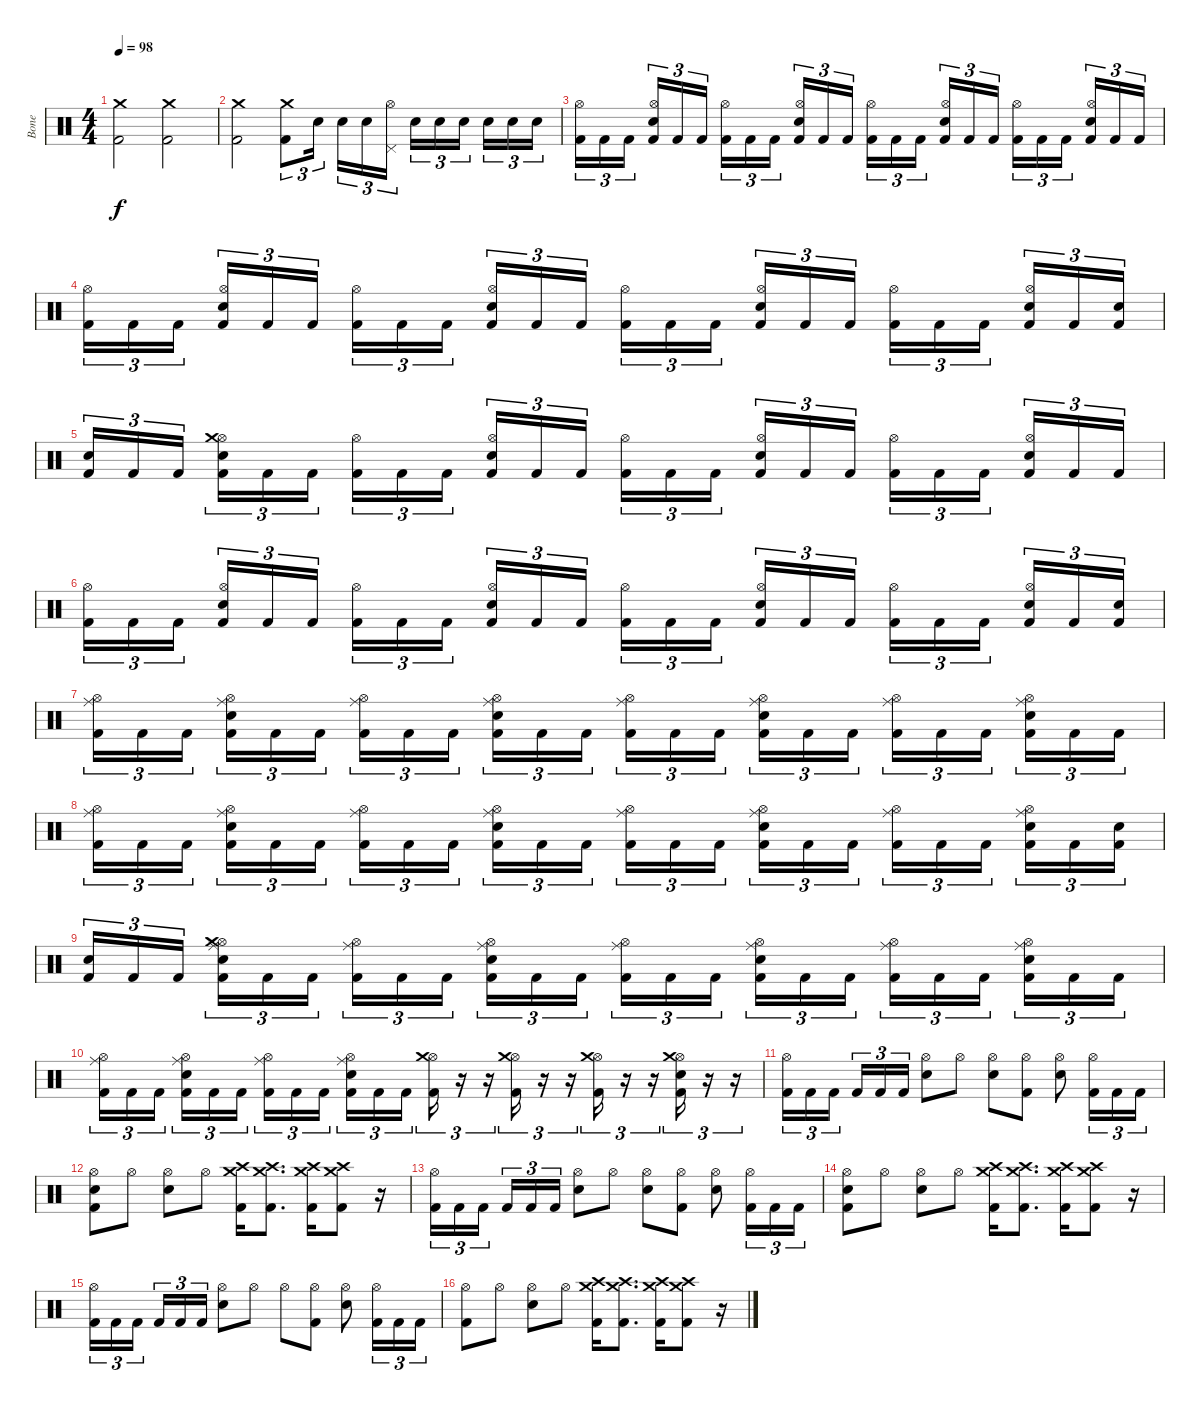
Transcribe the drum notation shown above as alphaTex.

\track ("Bone " "Bone ") {instrument percussion}
\staff {score}
\articulation defaults
\ts (4 4)
\tempo 98
\clef neutral
\ks c
("Crash medium (hit)" "Kick (hit) 2").2{dy f} ("Crash medium (hit)" "Kick (hit) 2").2 |
("Crash medium (hit)" "Kick (hit) 2").2 ("Crash medium (hit)" "Kick (hit) 2").8{tu (3 2)} "Electric Snare (hit)".16{tu (3 2) beam splitsecondary} "Electric Snare (hit)".16{tu (3 2)} "Electric Snare (hit)".16{tu (3 2)} ("Pedal Hi-Hat (hit)" "Hi-Hat (open)").16{tu (3 2)} "Electric Snare (hit)".16{tu (3 2)} "Electric Snare (hit)".16{tu (3 2)} "Electric Snare (hit)".16{tu (3 2) beam splitsecondary} "Electric Snare (hit)".16{tu (3 2)} "Electric Snare (hit)".16{tu (3 2)} "Electric Snare (hit)".16{tu (3 2)} |
("Hi-Hat (open)" "Kick (hit) 2").16{tu (3 2)} "Kick (hit) 2".16{tu (3 2)} "Kick (hit) 2".16{tu (3 2) beam splitsecondary} ("Hi-Hat (open)" "Snare (hit) 2" "Kick (hit) 2").16{tu (3 2)} "Kick (hit) 2".16{tu (3 2)} "Kick (hit) 2".16{tu (3 2)} ("Hi-Hat (open)" "Kick (hit) 2").16{tu (3 2)} "Kick (hit) 2".16{tu (3 2)} "Kick (hit) 2".16{tu (3 2) beam splitsecondary} ("Hi-Hat (open)" "Snare (hit) 2" "Kick (hit) 2").16{tu (3 2)} "Kick (hit) 2".16{tu (3 2)} "Kick (hit) 2".16{tu (3 2)} ("Hi-Hat (open)" "Kick (hit) 2").16{tu (3 2)} "Kick (hit) 2".16{tu (3 2)} "Kick (hit) 2".16{tu (3 2) beam splitsecondary} ("Hi-Hat (open)" "Snare (hit) 2" "Kick (hit) 2").16{tu (3 2)} "Kick (hit) 2".16{tu (3 2)} "Kick (hit) 2".16{tu (3 2)} ("Hi-Hat (open)" "Kick (hit) 2").16{tu (3 2)} "Kick (hit) 2".16{tu (3 2)} "Kick (hit) 2".16{tu (3 2) beam splitsecondary} ("Hi-Hat (open)" "Snare (hit) 2" "Kick (hit) 2").16{tu (3 2)} "Kick (hit) 2".16{tu (3 2)} "Kick (hit) 2".16{tu (3 2)} |
("Hi-Hat (open)" "Kick (hit) 2").16{tu (3 2)} "Kick (hit) 2".16{tu (3 2)} "Kick (hit) 2".16{tu (3 2) beam splitsecondary} ("Hi-Hat (open)" "Snare (hit) 2" "Kick (hit) 2").16{tu (3 2)} "Kick (hit) 2".16{tu (3 2)} "Kick (hit) 2".16{tu (3 2)} ("Hi-Hat (open)" "Kick (hit) 2").16{tu (3 2)} "Kick (hit) 2".16{tu (3 2)} "Kick (hit) 2".16{tu (3 2) beam splitsecondary} ("Hi-Hat (open)" "Snare (hit) 2" "Kick (hit) 2").16{tu (3 2)} "Kick (hit) 2".16{tu (3 2)} "Kick (hit) 2".16{tu (3 2)} ("Hi-Hat (open)" "Kick (hit) 2").16{tu (3 2)} "Kick (hit) 2".16{tu (3 2)} "Kick (hit) 2".16{tu (3 2) beam splitsecondary} ("Hi-Hat (open)" "Snare (hit) 2" "Kick (hit) 2").16{tu (3 2)} "Kick (hit) 2".16{tu (3 2)} "Kick (hit) 2".16{tu (3 2)} ("Hi-Hat (open)" "Kick (hit) 2").16{tu (3 2)} "Kick (hit) 2".16{tu (3 2)} "Kick (hit) 2".16{tu (3 2) beam splitsecondary} ("Hi-Hat (open)" "Snare (hit) 2" "Kick (hit) 2").16{tu (3 2)} "Kick (hit) 2".16{tu (3 2)} ("Snare (hit) 2" "Kick (hit) 2").16{tu (3 2)} |
("Snare (hit) 2" "Kick (hit) 2").16{tu (3 2)} "Kick (hit) 2".16{tu (3 2)} "Kick (hit) 2".16{tu (3 2) beam splitsecondary} ("Hi-Hat (open)" "Crash medium (hit)" "Snare (hit) 2" "Kick (hit) 2").16{tu (3 2)} "Kick (hit) 2".16{tu (3 2)} "Kick (hit) 2".16{tu (3 2)} ("Hi-Hat (open)" "Kick (hit) 2").16{tu (3 2)} "Kick (hit) 2".16{tu (3 2)} "Kick (hit) 2".16{tu (3 2) beam splitsecondary} ("Hi-Hat (open)" "Snare (hit) 2" "Kick (hit) 2").16{tu (3 2)} "Kick (hit) 2".16{tu (3 2)} "Kick (hit) 2".16{tu (3 2)} ("Hi-Hat (open)" "Kick (hit) 2").16{tu (3 2)} "Kick (hit) 2".16{tu (3 2)} "Kick (hit) 2".16{tu (3 2) beam splitsecondary} ("Hi-Hat (open)" "Snare (hit) 2" "Kick (hit) 2").16{tu (3 2)} "Kick (hit) 2".16{tu (3 2)} "Kick (hit) 2".16{tu (3 2)} ("Hi-Hat (open)" "Kick (hit) 2").16{tu (3 2)} "Kick (hit) 2".16{tu (3 2)} "Kick (hit) 2".16{tu (3 2) beam splitsecondary} ("Hi-Hat (open)" "Snare (hit) 2" "Kick (hit) 2").16{tu (3 2)} "Kick (hit) 2".16{tu (3 2)} "Kick (hit) 2".16{tu (3 2)} |
("Hi-Hat (open)" "Kick (hit) 2").16{tu (3 2)} "Kick (hit) 2".16{tu (3 2)} "Kick (hit) 2".16{tu (3 2) beam splitsecondary} ("Hi-Hat (open)" "Snare (hit) 2" "Kick (hit) 2").16{tu (3 2)} "Kick (hit) 2".16{tu (3 2)} "Kick (hit) 2".16{tu (3 2)} ("Hi-Hat (open)" "Kick (hit) 2").16{tu (3 2)} "Kick (hit) 2".16{tu (3 2)} "Kick (hit) 2".16{tu (3 2) beam splitsecondary} ("Hi-Hat (open)" "Snare (hit) 2" "Kick (hit) 2").16{tu (3 2)} "Kick (hit) 2".16{tu (3 2)} "Kick (hit) 2".16{tu (3 2)} ("Hi-Hat (open)" "Kick (hit) 2").16{tu (3 2)} "Kick (hit) 2".16{tu (3 2)} "Kick (hit) 2".16{tu (3 2) beam splitsecondary} ("Hi-Hat (open)" "Snare (hit) 2" "Kick (hit) 2").16{tu (3 2)} "Kick (hit) 2".16{tu (3 2)} "Kick (hit) 2".16{tu (3 2)} ("Hi-Hat (open)" "Kick (hit) 2").16{tu (3 2)} "Kick (hit) 2".16{tu (3 2)} "Kick (hit) 2".16{tu (3 2) beam splitsecondary} ("Hi-Hat (open)" "Snare (hit) 2" "Kick (hit) 2").16{tu (3 2)} "Kick (hit) 2".16{tu (3 2)} ("Snare (hit) 2" "Kick (hit) 2").16{tu (3 2)} |
("Hi-Hat (open)" "Ride (middle)" "Kick (hit) 2").16{tu (3 2)} "Kick (hit) 2".16{tu (3 2)} "Kick (hit) 2".16{tu (3 2) beam splitsecondary} ("Hi-Hat (open)" "Ride (middle)" "Snare (hit) 2" "Kick (hit) 2").16{tu (3 2)} "Kick (hit) 2".16{tu (3 2)} "Kick (hit) 2".16{tu (3 2)} ("Hi-Hat (open)" "Ride (middle)" "Kick (hit) 2").16{tu (3 2)} "Kick (hit) 2".16{tu (3 2)} "Kick (hit) 2".16{tu (3 2) beam splitsecondary} ("Hi-Hat (open)" "Ride (middle)" "Snare (hit) 2" "Kick (hit) 2").16{tu (3 2)} "Kick (hit) 2".16{tu (3 2)} "Kick (hit) 2".16{tu (3 2)} ("Hi-Hat (open)" "Ride (middle)" "Kick (hit) 2").16{tu (3 2)} "Kick (hit) 2".16{tu (3 2)} "Kick (hit) 2".16{tu (3 2) beam splitsecondary} ("Hi-Hat (open)" "Ride (middle)" "Snare (hit) 2" "Kick (hit) 2").16{tu (3 2)} "Kick (hit) 2".16{tu (3 2)} "Kick (hit) 2".16{tu (3 2)} ("Hi-Hat (open)" "Ride (middle)" "Kick (hit) 2").16{tu (3 2)} "Kick (hit) 2".16{tu (3 2)} "Kick (hit) 2".16{tu (3 2) beam splitsecondary} ("Hi-Hat (open)" "Ride (middle)" "Snare (hit) 2" "Kick (hit) 2").16{tu (3 2)} "Kick (hit) 2".16{tu (3 2)} "Kick (hit) 2".16{tu (3 2)} |
("Hi-Hat (open)" "Ride (middle)" "Kick (hit) 2").16{tu (3 2)} "Kick (hit) 2".16{tu (3 2)} "Kick (hit) 2".16{tu (3 2) beam splitsecondary} ("Hi-Hat (open)" "Ride (middle)" "Snare (hit) 2" "Kick (hit) 2").16{tu (3 2)} "Kick (hit) 2".16{tu (3 2)} "Kick (hit) 2".16{tu (3 2)} ("Hi-Hat (open)" "Ride (middle)" "Kick (hit) 2").16{tu (3 2)} "Kick (hit) 2".16{tu (3 2)} "Kick (hit) 2".16{tu (3 2) beam splitsecondary} ("Hi-Hat (open)" "Ride (middle)" "Snare (hit) 2" "Kick (hit) 2").16{tu (3 2)} "Kick (hit) 2".16{tu (3 2)} "Kick (hit) 2".16{tu (3 2)} ("Hi-Hat (open)" "Ride (middle)" "Kick (hit) 2").16{tu (3 2)} "Kick (hit) 2".16{tu (3 2)} "Kick (hit) 2".16{tu (3 2) beam splitsecondary} ("Hi-Hat (open)" "Ride (middle)" "Snare (hit) 2" "Kick (hit) 2").16{tu (3 2)} "Kick (hit) 2".16{tu (3 2)} "Kick (hit) 2".16{tu (3 2)} ("Hi-Hat (open)" "Ride (middle)" "Kick (hit) 2").16{tu (3 2)} "Kick (hit) 2".16{tu (3 2)} "Kick (hit) 2".16{tu (3 2) beam splitsecondary} ("Hi-Hat (open)" "Ride (middle)" "Snare (hit) 2" "Kick (hit) 2").16{tu (3 2)} "Kick (hit) 2".16{tu (3 2)} ("Snare (hit) 2" "Kick (hit) 2").16{tu (3 2)} |
("Snare (hit) 2" "Kick (hit) 2").16{tu (3 2)} "Kick (hit) 2".16{tu (3 2)} "Kick (hit) 2".16{tu (3 2) beam splitsecondary} ("Hi-Hat (open)" "Crash medium (hit)" "Ride (middle)" "Snare (hit) 2" "Kick (hit) 2").16{tu (3 2)} "Kick (hit) 2".16{tu (3 2)} "Kick (hit) 2".16{tu (3 2)} ("Hi-Hat (open)" "Ride (middle)" "Kick (hit) 2").16{tu (3 2)} "Kick (hit) 2".16{tu (3 2)} "Kick (hit) 2".16{tu (3 2) beam splitsecondary} ("Hi-Hat (open)" "Ride (middle)" "Snare (hit) 2" "Kick (hit) 2").16{tu (3 2)} "Kick (hit) 2".16{tu (3 2)} "Kick (hit) 2".16{tu (3 2)} ("Hi-Hat (open)" "Ride (middle)" "Kick (hit) 2").16{tu (3 2)} "Kick (hit) 2".16{tu (3 2)} "Kick (hit) 2".16{tu (3 2) beam splitsecondary} ("Hi-Hat (open)" "Ride (middle)" "Snare (hit) 2" "Kick (hit) 2").16{tu (3 2)} "Kick (hit) 2".16{tu (3 2)} "Kick (hit) 2".16{tu (3 2)} ("Hi-Hat (open)" "Ride (middle)" "Kick (hit) 2").16{tu (3 2)} "Kick (hit) 2".16{tu (3 2)} "Kick (hit) 2".16{tu (3 2) beam splitsecondary} ("Hi-Hat (open)" "Ride (middle)" "Snare (hit) 2" "Kick (hit) 2").16{tu (3 2)} "Kick (hit) 2".16{tu (3 2)} "Kick (hit) 2".16{tu (3 2)} |
("Hi-Hat (open)" "Ride (middle)" "Kick (hit) 2").16{tu (3 2)} "Kick (hit) 2".16{tu (3 2)} "Kick (hit) 2".16{tu (3 2) beam splitsecondary} ("Hi-Hat (open)" "Ride (middle)" "Snare (hit) 2" "Kick (hit) 2").16{tu (3 2)} "Kick (hit) 2".16{tu (3 2)} "Kick (hit) 2".16{tu (3 2)} ("Hi-Hat (open)" "Ride (middle)" "Kick (hit) 2").16{tu (3 2)} "Kick (hit) 2".16{tu (3 2)} "Kick (hit) 2".16{tu (3 2) beam splitsecondary} ("Hi-Hat (open)" "Ride (middle)" "Snare (hit) 2" "Kick (hit) 2").16{tu (3 2)} "Kick (hit) 2".16{tu (3 2)} "Kick (hit) 2".16{tu (3 2)} ("Hi-Hat (open)" "Crash medium (hit)" "Kick (hit) 2").16{tu (3 2)} r.16{tu (3 2)} r.16{tu (3 2)} ("Hi-Hat (open)" "Crash medium (hit)" "Kick (hit) 2").16{tu (3 2)} r.16{tu (3 2)} r.16{tu (3 2)} ("Hi-Hat (open)" "Crash medium (hit)" "Kick (hit) 2").16{tu (3 2)} r.16{tu (3 2)} r.16{tu (3 2)} ("Hi-Hat (open)" "Crash medium (hit)" "Snare (hit) 2" "Kick (hit) 2").16{tu (3 2)} r.16{tu (3 2)} r.16{tu (3 2)} |
("Hi-Hat (open)" "Kick (hit) 2").16{tu (3 2)} "Kick (hit) 2".16{tu (3 2)} "Kick (hit) 2".16{tu (3 2) beam splitsecondary} "Kick (hit) 2".16{tu (3 2)} "Kick (hit) 2".16{tu (3 2)} "Kick (hit) 2".16{tu (3 2)} ("Hi-Hat (open)" "Electric Snare (hit)").8 "Hi-Hat (open)".8 ("Hi-Hat (open)" "Electric Snare (hit)").8 ("Hi-Hat (open)" "Kick (hit) 2").8 ("Hi-Hat (open)" "Electric Snare (hit)").8 ("Hi-Hat (open)" "Kick (hit) 2").16{tu (3 2)} "Kick (hit) 2".16{tu (3 2)} "Kick (hit) 2".16{tu (3 2)} |
("Hi-Hat (open)" "Electric Snare (hit)" "Kick (hit) 2").8 "Hi-Hat (open)".8 ("Hi-Hat (open)" "Electric Snare (hit)").8 "Hi-Hat (open)".8 ("Crash medium (hit)" "Crash high (hit)" "Kick (hit) 2").16 ("Crash medium (hit)" "Crash high (hit)" "Kick (hit) 2").8{d} ("Crash medium (hit)" "Crash high (hit)" "Kick (hit) 2").16 ("Crash medium (hit)" "Crash high (hit)" "Kick (hit) 2").8 r.16 |
("Hi-Hat (open)" "Kick (hit) 2").16{tu (3 2)} "Kick (hit) 2".16{tu (3 2)} "Kick (hit) 2".16{tu (3 2) beam splitsecondary} "Kick (hit) 2".16{tu (3 2)} "Kick (hit) 2".16{tu (3 2)} "Kick (hit) 2".16{tu (3 2)} ("Hi-Hat (open)" "Electric Snare (hit)").8 "Hi-Hat (open)".8 ("Hi-Hat (open)" "Electric Snare (hit)").8 ("Hi-Hat (open)" "Kick (hit) 2").8 ("Hi-Hat (open)" "Electric Snare (hit)").8 ("Hi-Hat (open)" "Kick (hit) 2").16{tu (3 2)} "Kick (hit) 2".16{tu (3 2)} "Kick (hit) 2".16{tu (3 2)} |
("Hi-Hat (open)" "Electric Snare (hit)" "Kick (hit) 2").8 "Hi-Hat (open)".8 ("Hi-Hat (open)" "Electric Snare (hit)").8 "Hi-Hat (open)".8 ("Crash medium (hit)" "Crash high (hit)" "Kick (hit) 2").16 ("Crash medium (hit)" "Crash high (hit)" "Kick (hit) 2").8{d} ("Crash medium (hit)" "Crash high (hit)" "Kick (hit) 2").16 ("Crash medium (hit)" "Crash high (hit)" "Kick (hit) 2").8 r.16 |
("Hi-Hat (open)" "Kick (hit) 2").16{tu (3 2)} "Kick (hit) 2".16{tu (3 2)} "Kick (hit) 2".16{tu (3 2) beam splitsecondary} "Kick (hit) 2".16{tu (3 2)} "Kick (hit) 2".16{tu (3 2)} "Kick (hit) 2".16{tu (3 2)} ("Hi-Hat (open)" "Electric Snare (hit)").8 "Hi-Hat (open)".8 "Hi-Hat (open)".8 ("Hi-Hat (open)" "Kick (hit) 2").8 ("Hi-Hat (open)" "Electric Snare (hit)").8 ("Hi-Hat (open)" "Kick (hit) 2").16{tu (3 2)} "Kick (hit) 2".16{tu (3 2)} "Kick (hit) 2".16{tu (3 2)} |
("Hi-Hat (open)" "Kick (hit) 2").8 "Hi-Hat (open)".8 ("Hi-Hat (open)" "Electric Snare (hit)").8 "Hi-Hat (open)".8 ("Crash medium (hit)" "Crash high (hit)" "Kick (hit) 2").16 ("Crash medium (hit)" "Crash high (hit)" "Kick (hit) 2").8{d} ("Crash medium (hit)" "Crash high (hit)" "Kick (hit) 2").16 ("Crash medium (hit)" "Crash high (hit)" "Kick (hit) 2").8 r.16
